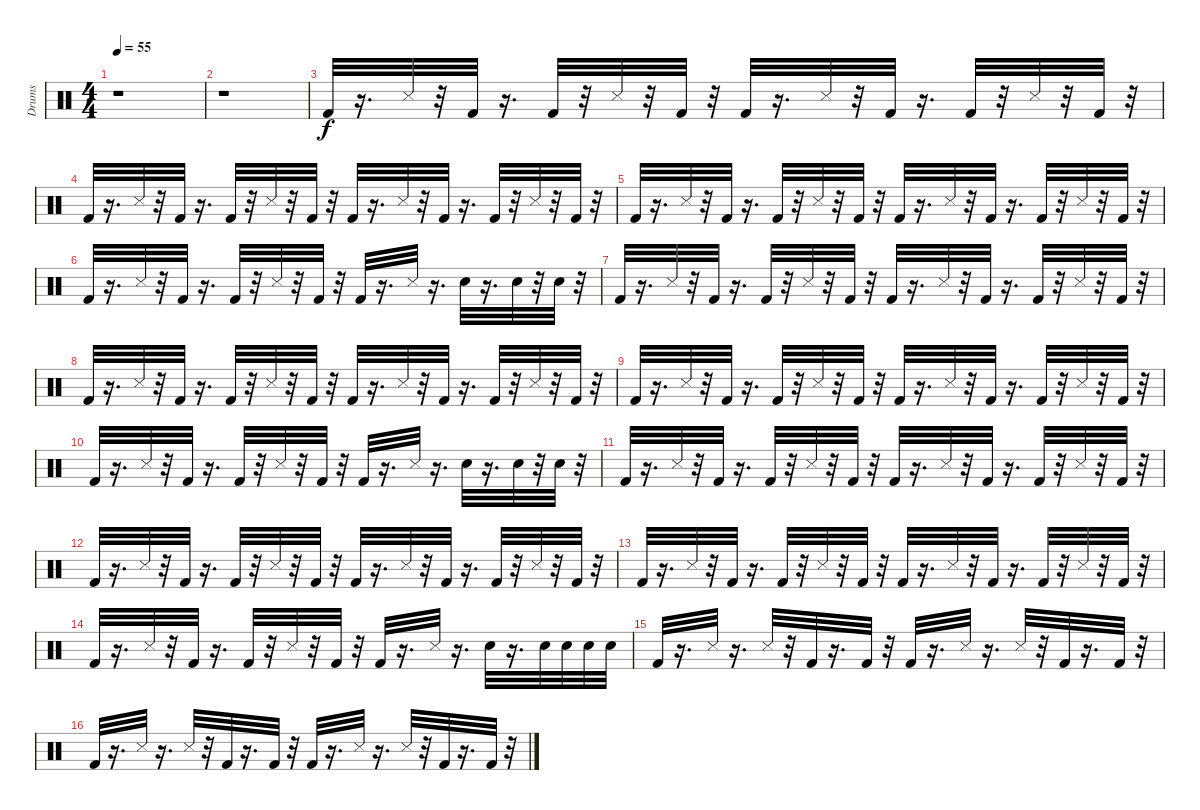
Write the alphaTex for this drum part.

\track ("Drums               " "Drums     ") {instrument percussion}
\staff {score}
\articulation defaults
\ts (4 4)
\tempo 55
\clef neutral
\ks c
r.1{dy f} |
r.1 |
"Kick (hit) 2".32 r.16{d} "Snare (side stick) 3".32 r.32 "Kick (hit) 2".32 r.16{d} "Kick (hit) 2".32 r.32 "Snare (side stick) 3".32 r.32 "Kick (hit) 2".32 r.32 "Kick (hit) 2".32 r.16{d} "Snare (side stick) 3".32 r.32 "Kick (hit) 2".32 r.16{d} "Kick (hit) 2".32 r.32 "Snare (side stick) 3".32 r.32 "Kick (hit) 2".32 r.32 |
"Kick (hit) 2".32 r.16{d} "Snare (side stick) 3".32 r.32 "Kick (hit) 2".32 r.16{d} "Kick (hit) 2".32 r.32 "Snare (side stick) 3".32 r.32 "Kick (hit) 2".32 r.32 "Kick (hit) 2".32 r.16{d} "Snare (side stick) 3".32 r.32 "Kick (hit) 2".32 r.16{d} "Kick (hit) 2".32 r.32 "Snare (side stick) 3".32 r.32 "Kick (hit) 2".32 r.32 |
"Kick (hit) 2".32 r.16{d} "Snare (side stick) 3".32 r.32 "Kick (hit) 2".32 r.16{d} "Kick (hit) 2".32 r.32 "Snare (side stick) 3".32 r.32 "Kick (hit) 2".32 r.32 "Kick (hit) 2".32 r.16{d} "Snare (side stick) 3".32 r.32 "Kick (hit) 2".32 r.16{d} "Kick (hit) 2".32 r.32 "Snare (side stick) 3".32 r.32 "Kick (hit) 2".32 r.32 |
"Kick (hit) 2".32 r.16{d} "Snare (side stick) 3".32 r.32 "Kick (hit) 2".32 r.16{d} "Kick (hit) 2".32 r.32 "Snare (side stick) 3".32 r.32 "Kick (hit) 2".32 r.32 "Kick (hit) 2".32 r.16{d} "Snare (side stick) 3".32 r.16{d} "Snare (hit) 2".32 r.16{d} "Snare (hit) 2".32 r.32 "Snare (hit) 2".32 r.32 |
"Kick (hit) 2".32 r.16{d} "Snare (side stick) 3".32 r.32 "Kick (hit) 2".32 r.16{d} "Kick (hit) 2".32 r.32 "Snare (side stick) 3".32 r.32 "Kick (hit) 2".32 r.32 "Kick (hit) 2".32 r.16{d} "Snare (side stick) 3".32 r.32 "Kick (hit) 2".32 r.16{d} "Kick (hit) 2".32 r.32 "Snare (side stick) 3".32 r.32 "Kick (hit) 2".32 r.32 |
"Kick (hit) 2".32 r.16{d} "Snare (side stick) 3".32 r.32 "Kick (hit) 2".32 r.16{d} "Kick (hit) 2".32 r.32 "Snare (side stick) 3".32 r.32 "Kick (hit) 2".32 r.32 "Kick (hit) 2".32 r.16{d} "Snare (side stick) 3".32 r.32 "Kick (hit) 2".32 r.16{d} "Kick (hit) 2".32 r.32 "Snare (side stick) 3".32 r.32 "Kick (hit) 2".32 r.32 |
"Kick (hit) 2".32 r.16{d} "Snare (side stick) 3".32 r.32 "Kick (hit) 2".32 r.16{d} "Kick (hit) 2".32 r.32 "Snare (side stick) 3".32 r.32 "Kick (hit) 2".32 r.32 "Kick (hit) 2".32 r.16{d} "Snare (side stick) 3".32 r.32 "Kick (hit) 2".32 r.16{d} "Kick (hit) 2".32 r.32 "Snare (side stick) 3".32 r.32 "Kick (hit) 2".32 r.32 |
"Kick (hit) 2".32 r.16{d} "Snare (side stick) 3".32 r.32 "Kick (hit) 2".32 r.16{d} "Kick (hit) 2".32 r.32 "Snare (side stick) 3".32 r.32 "Kick (hit) 2".32 r.32 "Kick (hit) 2".32 r.16{d} "Snare (side stick) 3".32 r.16{d} "Snare (hit) 2".32 r.16{d} "Snare (hit) 2".32 r.32 "Snare (hit) 2".32 r.32 |
"Kick (hit) 2".32 r.16{d} "Snare (side stick) 3".32 r.32 "Kick (hit) 2".32 r.16{d} "Kick (hit) 2".32 r.32 "Snare (side stick) 3".32 r.32 "Kick (hit) 2".32 r.32 "Kick (hit) 2".32 r.16{d} "Snare (side stick) 3".32 r.32 "Kick (hit) 2".32 r.16{d} "Kick (hit) 2".32 r.32 "Snare (side stick) 3".32 r.32 "Kick (hit) 2".32 r.32 |
"Kick (hit) 2".32 r.16{d} "Snare (side stick) 3".32 r.32 "Kick (hit) 2".32 r.16{d} "Kick (hit) 2".32 r.32 "Snare (side stick) 3".32 r.32 "Kick (hit) 2".32 r.32 "Kick (hit) 2".32 r.16{d} "Snare (side stick) 3".32 r.32 "Kick (hit) 2".32 r.16{d} "Kick (hit) 2".32 r.32 "Snare (side stick) 3".32 r.32 "Kick (hit) 2".32 r.32 |
"Kick (hit) 2".32 r.16{d} "Snare (side stick) 3".32 r.32 "Kick (hit) 2".32 r.16{d} "Kick (hit) 2".32 r.32 "Snare (side stick) 3".32 r.32 "Kick (hit) 2".32 r.32 "Kick (hit) 2".32 r.16{d} "Snare (side stick) 3".32 r.32 "Kick (hit) 2".32 r.16{d} "Kick (hit) 2".32 r.32 "Snare (side stick) 3".32 r.32 "Kick (hit) 2".32 r.32 |
"Kick (hit) 2".32 r.16{d} "Snare (side stick) 3".32 r.32 "Kick (hit) 2".32 r.16{d} "Kick (hit) 2".32 r.32 "Snare (side stick) 3".32 r.32 "Kick (hit) 2".32 r.32 "Kick (hit) 2".32 r.16{d} "Snare (side stick) 3".32 r.16{d} "Snare (hit) 2".32 r.16{d} "Snare (hit) 2".32 "Snare (hit) 2".32 "Snare (hit) 2".32 "Snare (hit) 2".32 |
"Kick (hit) 2".32 r.16{d} "Snare (side stick) 3".32 r.16{d} "Snare (side stick) 3".32 r.32 "Kick (hit) 2".32 r.16{d} "Kick (hit) 2".32 r.32 "Kick (hit) 2".32 r.16{d} "Snare (side stick) 3".32 r.16{d} "Snare (side stick) 3".32 r.32 "Kick (hit) 2".32 r.16{d} "Kick (hit) 2".32 r.32 |
"Kick (hit) 2".32 r.16{d} "Snare (side stick) 3".32 r.16{d} "Snare (side stick) 3".32 r.32 "Kick (hit) 2".32 r.16{d} "Kick (hit) 2".32 r.32 "Kick (hit) 2".32 r.16{d} "Snare (side stick) 3".32 r.16{d} "Snare (side stick) 3".32 r.32 "Kick (hit) 2".32 r.16{d} "Kick (hit) 2".32 r.32
